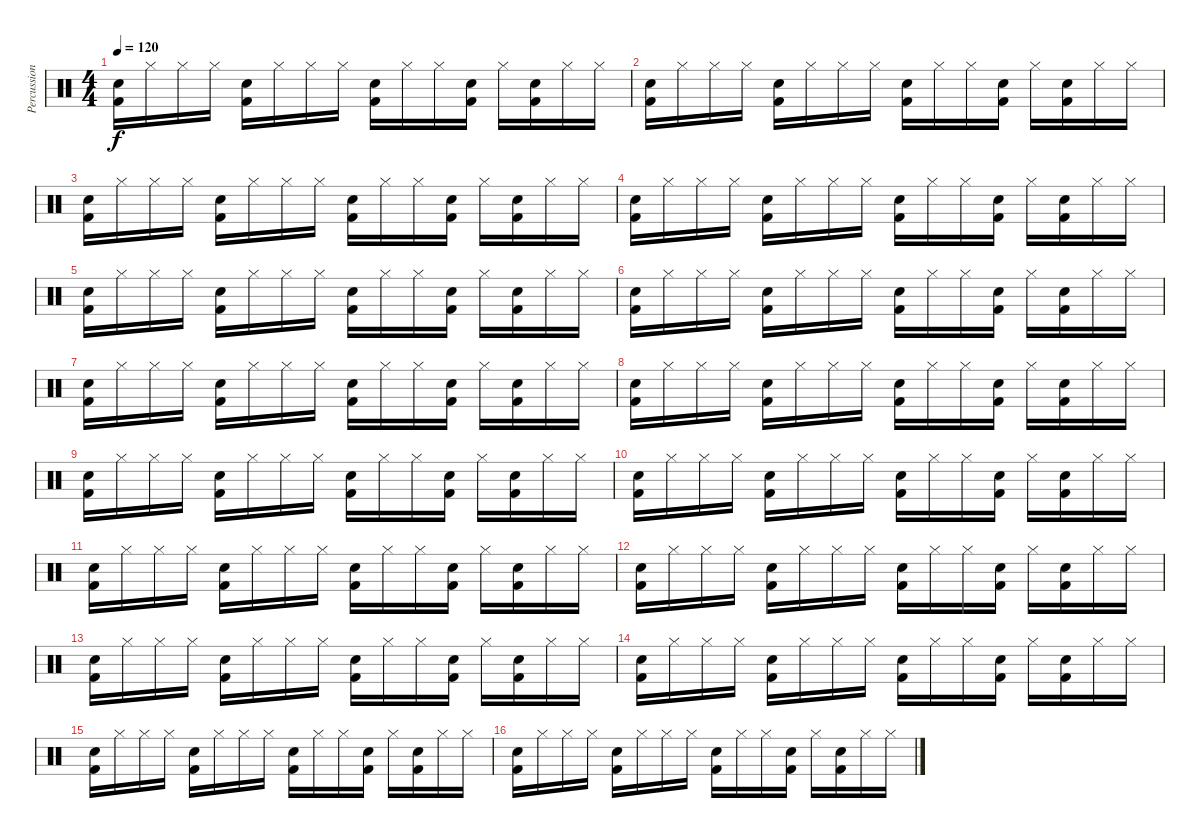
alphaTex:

\track ("Percussion" "Percussion") {instrument percussion}
\staff {score}
\articulation defaults
\ts (4 4)
\tempo 120
\clef neutral
\ks c
("Electric Snare (hit)" "Kick (hit) 2").16{dy f} "Hi-Hat (closed)".16 "Hi-Hat (closed)".16 "Hi-Hat (closed)".16 ("Electric Snare (hit)" "Kick (hit) 2").16 "Hi-Hat (closed)".16 "Hi-Hat (closed)".16 "Hi-Hat (closed)".16 ("Electric Snare (hit)" "Kick (hit) 2").16 "Hi-Hat (closed)".16 "Hi-Hat (closed)".16 ("Electric Snare (hit)" "Kick (hit) 2").16 "Hi-Hat (closed)".16 ("Electric Snare (hit)" "Kick (hit) 2").16 "Hi-Hat (closed)".16 "Hi-Hat (closed)".16 |
("Electric Snare (hit)" "Kick (hit) 2").16 "Hi-Hat (closed)".16 "Hi-Hat (closed)".16 "Hi-Hat (closed)".16 ("Electric Snare (hit)" "Kick (hit) 2").16 "Hi-Hat (closed)".16 "Hi-Hat (closed)".16 "Hi-Hat (closed)".16 ("Electric Snare (hit)" "Kick (hit) 2").16 "Hi-Hat (closed)".16 "Hi-Hat (closed)".16 ("Electric Snare (hit)" "Kick (hit) 2").16 "Hi-Hat (closed)".16 ("Electric Snare (hit)" "Kick (hit) 2").16 "Hi-Hat (closed)".16 "Hi-Hat (closed)".16 |
("Electric Snare (hit)" "Kick (hit) 2").16 "Hi-Hat (closed)".16 "Hi-Hat (closed)".16 "Hi-Hat (closed)".16 ("Electric Snare (hit)" "Kick (hit) 2").16 "Hi-Hat (closed)".16 "Hi-Hat (closed)".16 "Hi-Hat (closed)".16 ("Electric Snare (hit)" "Kick (hit) 2").16 "Hi-Hat (closed)".16 "Hi-Hat (closed)".16 ("Electric Snare (hit)" "Kick (hit) 2").16 "Hi-Hat (closed)".16 ("Electric Snare (hit)" "Kick (hit) 2").16 "Hi-Hat (closed)".16 "Hi-Hat (closed)".16 |
("Electric Snare (hit)" "Kick (hit) 2").16 "Hi-Hat (closed)".16 "Hi-Hat (closed)".16 "Hi-Hat (closed)".16 ("Electric Snare (hit)" "Kick (hit) 2").16 "Hi-Hat (closed)".16 "Hi-Hat (closed)".16 "Hi-Hat (closed)".16 ("Electric Snare (hit)" "Kick (hit) 2").16 "Hi-Hat (closed)".16 "Hi-Hat (closed)".16 ("Electric Snare (hit)" "Kick (hit) 2").16 "Hi-Hat (closed)".16 ("Electric Snare (hit)" "Kick (hit) 2").16 "Hi-Hat (closed)".16 "Hi-Hat (closed)".16 |
("Electric Snare (hit)" "Kick (hit) 2").16 "Hi-Hat (closed)".16 "Hi-Hat (closed)".16 "Hi-Hat (closed)".16 ("Electric Snare (hit)" "Kick (hit) 2").16 "Hi-Hat (closed)".16 "Hi-Hat (closed)".16 "Hi-Hat (closed)".16 ("Electric Snare (hit)" "Kick (hit) 2").16 "Hi-Hat (closed)".16 "Hi-Hat (closed)".16 ("Electric Snare (hit)" "Kick (hit) 2").16 "Hi-Hat (closed)".16 ("Electric Snare (hit)" "Kick (hit) 2").16 "Hi-Hat (closed)".16 "Hi-Hat (closed)".16 |
("Electric Snare (hit)" "Kick (hit) 2").16 "Hi-Hat (closed)".16 "Hi-Hat (closed)".16 "Hi-Hat (closed)".16 ("Electric Snare (hit)" "Kick (hit) 2").16 "Hi-Hat (closed)".16 "Hi-Hat (closed)".16 "Hi-Hat (closed)".16 ("Electric Snare (hit)" "Kick (hit) 2").16 "Hi-Hat (closed)".16 "Hi-Hat (closed)".16 ("Electric Snare (hit)" "Kick (hit) 2").16 "Hi-Hat (closed)".16 ("Electric Snare (hit)" "Kick (hit) 2").16 "Hi-Hat (closed)".16 "Hi-Hat (closed)".16 |
("Electric Snare (hit)" "Kick (hit) 2").16 "Hi-Hat (closed)".16 "Hi-Hat (closed)".16 "Hi-Hat (closed)".16 ("Electric Snare (hit)" "Kick (hit) 2").16 "Hi-Hat (closed)".16 "Hi-Hat (closed)".16 "Hi-Hat (closed)".16 ("Electric Snare (hit)" "Kick (hit) 2").16 "Hi-Hat (closed)".16 "Hi-Hat (closed)".16 ("Electric Snare (hit)" "Kick (hit) 2").16 "Hi-Hat (closed)".16 ("Electric Snare (hit)" "Kick (hit) 2").16 "Hi-Hat (closed)".16 "Hi-Hat (closed)".16 |
("Electric Snare (hit)" "Kick (hit) 2").16 "Hi-Hat (closed)".16 "Hi-Hat (closed)".16 "Hi-Hat (closed)".16 ("Electric Snare (hit)" "Kick (hit) 2").16 "Hi-Hat (closed)".16 "Hi-Hat (closed)".16 "Hi-Hat (closed)".16 ("Electric Snare (hit)" "Kick (hit) 2").16 "Hi-Hat (closed)".16 "Hi-Hat (closed)".16 ("Electric Snare (hit)" "Kick (hit) 2").16 "Hi-Hat (closed)".16 ("Electric Snare (hit)" "Kick (hit) 2").16 "Hi-Hat (closed)".16 "Hi-Hat (closed)".16 |
("Electric Snare (hit)" "Kick (hit) 2").16 "Hi-Hat (closed)".16 "Hi-Hat (closed)".16 "Hi-Hat (closed)".16 ("Electric Snare (hit)" "Kick (hit) 2").16 "Hi-Hat (closed)".16 "Hi-Hat (closed)".16 "Hi-Hat (closed)".16 ("Electric Snare (hit)" "Kick (hit) 2").16 "Hi-Hat (closed)".16 "Hi-Hat (closed)".16 ("Electric Snare (hit)" "Kick (hit) 2").16 "Hi-Hat (closed)".16 ("Electric Snare (hit)" "Kick (hit) 2").16 "Hi-Hat (closed)".16 "Hi-Hat (closed)".16 |
("Electric Snare (hit)" "Kick (hit) 2").16 "Hi-Hat (closed)".16 "Hi-Hat (closed)".16 "Hi-Hat (closed)".16 ("Electric Snare (hit)" "Kick (hit) 2").16 "Hi-Hat (closed)".16 "Hi-Hat (closed)".16 "Hi-Hat (closed)".16 ("Electric Snare (hit)" "Kick (hit) 2").16 "Hi-Hat (closed)".16 "Hi-Hat (closed)".16 ("Electric Snare (hit)" "Kick (hit) 2").16 "Hi-Hat (closed)".16 ("Electric Snare (hit)" "Kick (hit) 2").16 "Hi-Hat (closed)".16 "Hi-Hat (closed)".16 |
("Electric Snare (hit)" "Kick (hit) 2").16 "Hi-Hat (closed)".16 "Hi-Hat (closed)".16 "Hi-Hat (closed)".16 ("Electric Snare (hit)" "Kick (hit) 2").16 "Hi-Hat (closed)".16 "Hi-Hat (closed)".16 "Hi-Hat (closed)".16 ("Electric Snare (hit)" "Kick (hit) 2").16 "Hi-Hat (closed)".16 "Hi-Hat (closed)".16 ("Electric Snare (hit)" "Kick (hit) 2").16 "Hi-Hat (closed)".16 ("Electric Snare (hit)" "Kick (hit) 2").16 "Hi-Hat (closed)".16 "Hi-Hat (closed)".16 |
("Electric Snare (hit)" "Kick (hit) 2").16 "Hi-Hat (closed)".16 "Hi-Hat (closed)".16 "Hi-Hat (closed)".16 ("Electric Snare (hit)" "Kick (hit) 2").16 "Hi-Hat (closed)".16 "Hi-Hat (closed)".16 "Hi-Hat (closed)".16 ("Electric Snare (hit)" "Kick (hit) 2").16 "Hi-Hat (closed)".16 "Hi-Hat (closed)".16 ("Electric Snare (hit)" "Kick (hit) 2").16 "Hi-Hat (closed)".16 ("Electric Snare (hit)" "Kick (hit) 2").16 "Hi-Hat (closed)".16 "Hi-Hat (closed)".16 |
("Electric Snare (hit)" "Kick (hit) 2").16 "Hi-Hat (closed)".16 "Hi-Hat (closed)".16 "Hi-Hat (closed)".16 ("Electric Snare (hit)" "Kick (hit) 2").16 "Hi-Hat (closed)".16 "Hi-Hat (closed)".16 "Hi-Hat (closed)".16 ("Electric Snare (hit)" "Kick (hit) 2").16 "Hi-Hat (closed)".16 "Hi-Hat (closed)".16 ("Electric Snare (hit)" "Kick (hit) 2").16 "Hi-Hat (closed)".16 ("Electric Snare (hit)" "Kick (hit) 2").16 "Hi-Hat (closed)".16 "Hi-Hat (closed)".16 |
("Electric Snare (hit)" "Kick (hit) 2").16 "Hi-Hat (closed)".16 "Hi-Hat (closed)".16 "Hi-Hat (closed)".16 ("Electric Snare (hit)" "Kick (hit) 2").16 "Hi-Hat (closed)".16 "Hi-Hat (closed)".16 "Hi-Hat (closed)".16 ("Electric Snare (hit)" "Kick (hit) 2").16 "Hi-Hat (closed)".16 "Hi-Hat (closed)".16 ("Electric Snare (hit)" "Kick (hit) 2").16 "Hi-Hat (closed)".16 ("Electric Snare (hit)" "Kick (hit) 2").16 "Hi-Hat (closed)".16 "Hi-Hat (closed)".16 |
("Electric Snare (hit)" "Kick (hit) 2").16 "Hi-Hat (closed)".16 "Hi-Hat (closed)".16 "Hi-Hat (closed)".16 ("Electric Snare (hit)" "Kick (hit) 2").16 "Hi-Hat (closed)".16 "Hi-Hat (closed)".16 "Hi-Hat (closed)".16 ("Electric Snare (hit)" "Kick (hit) 2").16 "Hi-Hat (closed)".16 "Hi-Hat (closed)".16 ("Electric Snare (hit)" "Kick (hit) 2").16 "Hi-Hat (closed)".16 ("Electric Snare (hit)" "Kick (hit) 2").16 "Hi-Hat (closed)".16 "Hi-Hat (closed)".16 |
("Electric Snare (hit)" "Kick (hit) 2").16 "Hi-Hat (closed)".16 "Hi-Hat (closed)".16 "Hi-Hat (closed)".16 ("Electric Snare (hit)" "Kick (hit) 2").16 "Hi-Hat (closed)".16 "Hi-Hat (closed)".16 "Hi-Hat (closed)".16 ("Electric Snare (hit)" "Kick (hit) 2").16 "Hi-Hat (closed)".16 "Hi-Hat (closed)".16 ("Electric Snare (hit)" "Kick (hit) 2").16 "Hi-Hat (closed)".16 ("Electric Snare (hit)" "Kick (hit) 2").16 "Hi-Hat (closed)".16 "Hi-Hat (closed)".16
